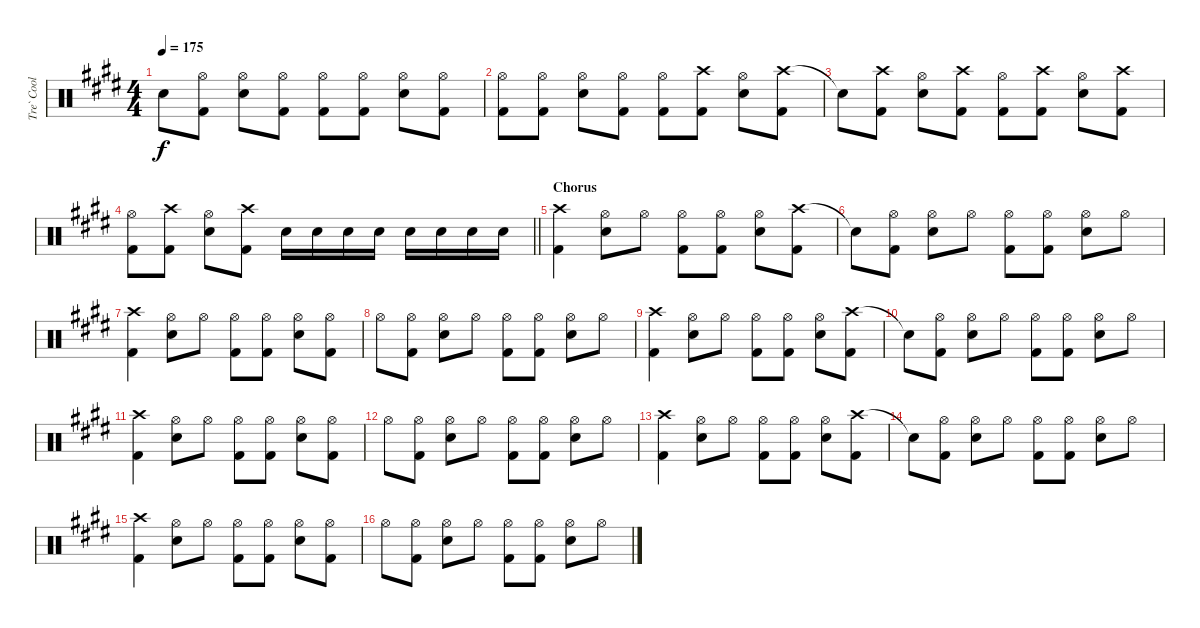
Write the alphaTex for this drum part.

\track ("Tre` Cool" "Tre` Cool") {instrument percussion}
\staff {score}
\articulation defaults
\ts (4 4)
\tempo 175
\clef neutral
\ks e "Snare (hit)"{t}.8{dy f}
("Hi-Hat (open)" "Kick (hit) 2").8 ("Hi-Hat (open)" "Snare (hit) 2").8 ("Hi-Hat (open)" "Kick (hit) 2").8 ("Hi-Hat (open)" "Kick (hit) 2").8 ("Hi-Hat (open)" "Kick (hit) 2").8 ("Hi-Hat (open)" "Snare (hit) 2").8 ("Hi-Hat (open)" "Kick (hit) 2").8 |
("Hi-Hat (open)" "Kick (hit) 2").8 ("Hi-Hat (open)" "Kick (hit) 2").8 ("Hi-Hat (open)" "Snare (hit) 2").8 ("Hi-Hat (open)" "Kick (hit) 2").8 ("Hi-Hat (open)" "Kick (hit) 2").8 ("Crash high (hit)" "Kick (hit) 2").8 ("Hi-Hat (open)" "Snare (hit) 2").8 ("Crash high (hit)" "Kick (hit) 2").8 |
"Snare (hit)"{t}.8 ("Crash high (hit)" "Kick (hit) 2").8 ("Hi-Hat (open)" "Snare (hit) 2").8 ("Crash high (hit)" "Kick (hit) 2").8 ("Hi-Hat (open)" "Kick (hit) 2").8 ("Crash high (hit)" "Kick (hit) 2").8 ("Hi-Hat (open)" "Snare (hit) 2").8 ("Crash high (hit)" "Kick (hit) 2").8 |
\barLineRight lightlight
("Hi-Hat (open)" "Kick (hit) 2").8 ("Crash high (hit)" "Kick (hit) 2").8 ("Hi-Hat (open)" "Snare (hit) 2").8 ("Crash high (hit)" "Kick (hit) 2").8 "Snare (hit) 2".16 "Snare (hit) 2".16 "Snare (hit) 2".16 "Snare (hit) 2".16 "Snare (hit) 2".16 "Snare (hit) 2".16 "Snare (hit) 2".16 "Snare (hit) 2".16 |
\section ("" "Chorus")
("Crash high (hit)" "Kick (hit) 2").4 ("Hi-Hat (open)" "Snare (hit) 2").8 "Hi-Hat (open)".8 ("Hi-Hat (open)" "Kick (hit) 2").8 ("Hi-Hat (open)" "Kick (hit) 2").8 ("Hi-Hat (open)" "Snare (hit) 2").8 ("Crash high (hit)" "Kick (hit) 2").8 |
"Snare (hit)"{t}.8 ("Hi-Hat (open)" "Kick (hit) 2").8 ("Hi-Hat (open)" "Snare (hit) 2").8 "Hi-Hat (open)".8 ("Hi-Hat (open)" "Kick (hit) 2").8 ("Hi-Hat (open)" "Kick (hit) 2").8 ("Hi-Hat (open)" "Snare (hit) 2").8 "Hi-Hat (open)".8 |
("Crash high (hit)" "Kick (hit) 2").4 ("Hi-Hat (open)" "Snare (hit) 2").8 "Hi-Hat (open)".8 ("Hi-Hat (open)" "Kick (hit) 2").8 ("Hi-Hat (open)" "Kick (hit) 2").8 ("Hi-Hat (open)" "Snare (hit) 2").8 ("Hi-Hat (open)" "Kick (hit) 2").8 |
"Hi-Hat (open)".8 ("Hi-Hat (open)" "Kick (hit) 2").8 ("Hi-Hat (open)" "Snare (hit) 2").8 "Hi-Hat (open)".8 ("Hi-Hat (open)" "Kick (hit) 2").8 ("Hi-Hat (open)" "Kick (hit) 2").8 ("Hi-Hat (open)" "Snare (hit) 2").8 "Hi-Hat (open)".8 |
("Crash high (hit)" "Kick (hit) 2").4 ("Hi-Hat (open)" "Snare (hit) 2").8 "Hi-Hat (open)".8 ("Hi-Hat (open)" "Kick (hit) 2").8 ("Hi-Hat (open)" "Kick (hit) 2").8 ("Hi-Hat (open)" "Snare (hit) 2").8 ("Crash high (hit)" "Kick (hit) 2").8 |
"Snare (hit)"{t}.8 ("Hi-Hat (open)" "Kick (hit) 2").8 ("Hi-Hat (open)" "Snare (hit) 2").8 "Hi-Hat (open)".8 ("Hi-Hat (open)" "Kick (hit) 2").8 ("Hi-Hat (open)" "Kick (hit) 2").8 ("Hi-Hat (open)" "Snare (hit) 2").8 "Hi-Hat (open)".8 |
("Crash high (hit)" "Kick (hit) 2").4 ("Hi-Hat (open)" "Snare (hit) 2").8 "Hi-Hat (open)".8 ("Hi-Hat (open)" "Kick (hit) 2").8 ("Hi-Hat (open)" "Kick (hit) 2").8 ("Hi-Hat (open)" "Snare (hit) 2").8 ("Hi-Hat (open)" "Kick (hit) 2").8 |
"Hi-Hat (open)".8 ("Hi-Hat (open)" "Kick (hit) 2").8 ("Hi-Hat (open)" "Snare (hit) 2").8 "Hi-Hat (open)".8 ("Hi-Hat (open)" "Kick (hit) 2").8 ("Hi-Hat (open)" "Kick (hit) 2").8 ("Hi-Hat (open)" "Snare (hit) 2").8 "Hi-Hat (open)".8 |
("Crash high (hit)" "Kick (hit) 2").4 ("Hi-Hat (open)" "Snare (hit) 2").8 "Hi-Hat (open)".8 ("Hi-Hat (open)" "Kick (hit) 2").8 ("Hi-Hat (open)" "Kick (hit) 2").8 ("Hi-Hat (open)" "Snare (hit) 2").8 ("Crash high (hit)" "Kick (hit) 2").8 |
"Snare (hit)"{t}.8 ("Hi-Hat (open)" "Kick (hit) 2").8 ("Hi-Hat (open)" "Snare (hit) 2").8 "Hi-Hat (open)".8 ("Hi-Hat (open)" "Kick (hit) 2").8 ("Hi-Hat (open)" "Kick (hit) 2").8 ("Hi-Hat (open)" "Snare (hit) 2").8 "Hi-Hat (open)".8 |
("Crash high (hit)" "Kick (hit) 2").4 ("Hi-Hat (open)" "Snare (hit) 2").8 "Hi-Hat (open)".8 ("Hi-Hat (open)" "Kick (hit) 2").8 ("Hi-Hat (open)" "Kick (hit) 2").8 ("Hi-Hat (open)" "Snare (hit) 2").8 ("Hi-Hat (open)" "Kick (hit) 2").8 |
"Hi-Hat (open)".8 ("Hi-Hat (open)" "Kick (hit) 2").8 ("Hi-Hat (open)" "Snare (hit) 2").8 "Hi-Hat (open)".8 ("Hi-Hat (open)" "Kick (hit) 2").8 ("Hi-Hat (open)" "Kick (hit) 2").8 ("Hi-Hat (open)" "Snare (hit) 2").8 "Hi-Hat (open)".8
